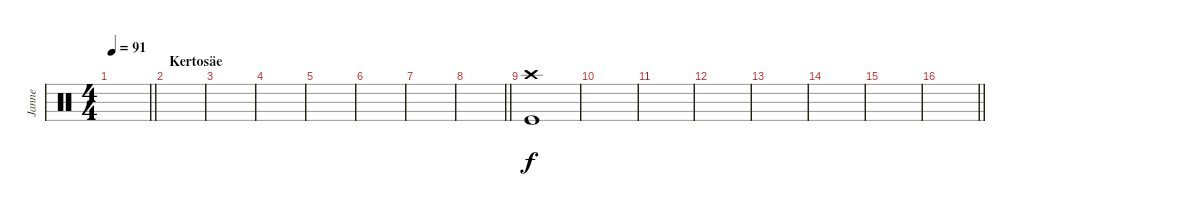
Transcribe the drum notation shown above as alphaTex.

\track ("Janne" "Janne") {instrument percussion}
\staff {score}
\articulation defaults
\ts (4 4)
\tempo 91
\clef neutral
\barLineRight lightlight
\ks c
|
\section ("" "Kertosäe")
|
|
|
|
|
|
\barLineRight lightlight
|
\section ("" "")
("Crash high (hit)" "Kick (hit)").1{volume 14} |
|
|
|
|
|
|
\barLineRight lightlight
